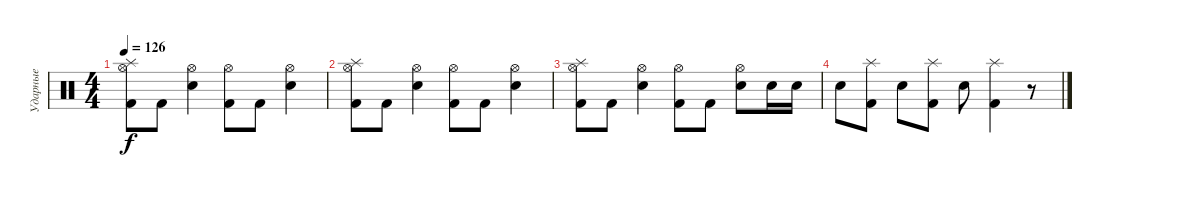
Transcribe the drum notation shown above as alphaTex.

\track ("Ударные" "Ударные") {instrument percussion}
\staff {score}
\articulation defaults
\ts (4 4)
\tempo 126
\clef neutral
\ks c
("Kick (hit) 2" "Hi-Hat (open)" "Splash (hit)").8{dy f} "Kick (hit) 2".8 ("Electric Snare (hit)" "Hi-Hat (open)").4 ("Kick (hit) 2" "Hi-Hat (open)").8 "Kick (hit) 2".8 ("Electric Snare (hit)" "Hi-Hat (open)").4 |
("Kick (hit) 2" "Hi-Hat (open)" "Splash (hit)").8 "Kick (hit) 2".8 ("Electric Snare (hit)" "Hi-Hat (open)").4 ("Kick (hit) 2" "Hi-Hat (open)").8 "Kick (hit) 2".8 ("Electric Snare (hit)" "Hi-Hat (open)").4 |
("Kick (hit) 2" "Hi-Hat (open)" "Splash (hit)").8 "Kick (hit) 2".8 ("Electric Snare (hit)" "Hi-Hat (open)").4 ("Kick (hit) 2" "Hi-Hat (open)").8 "Kick (hit) 2".8 ("Electric Snare (hit)" "Hi-Hat (open)").8 "Electric Snare (hit)".16 "Electric Snare (hit)".16 |
"Electric Snare (hit)".8 ("Kick (hit) 2" "Splash (hit)").8 "Electric Snare (hit)".8 ("Kick (hit) 2" "Splash (hit)").8 "Electric Snare (hit)".8 ("Kick (hit) 2" "Splash (hit)").4 r.8
